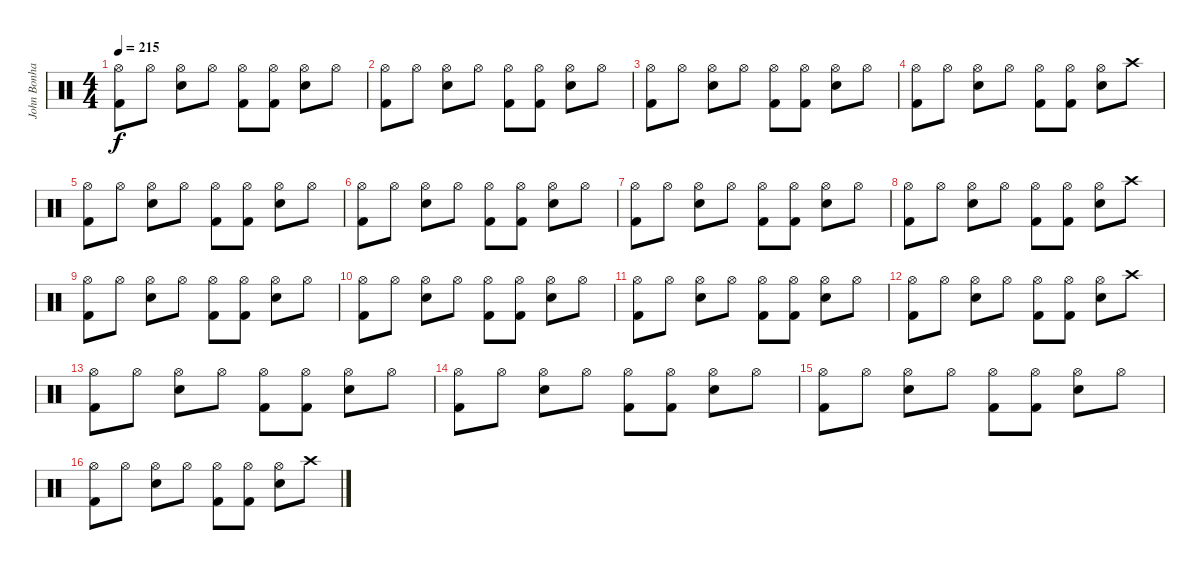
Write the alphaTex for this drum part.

\track ("John Bonham" "John Bonha") {instrument percussion}
\staff {score}
\articulation defaults
\ts (4 4)
\tempo 215
\clef neutral
\ks c
("Hi-Hat (open)" "Kick (hit) 2").8{dy f} "Hi-Hat (open)".8 ("Hi-Hat (open)" "Snare (hit) 2").8 "Hi-Hat (open)".8 ("Hi-Hat (open)" "Kick (hit) 2").8 ("Hi-Hat (open)" "Kick (hit) 2").8 ("Hi-Hat (open)" "Snare (hit) 2").8 "Hi-Hat (open)".8 |
("Hi-Hat (open)" "Kick (hit) 2").8 "Hi-Hat (open)".8 ("Hi-Hat (open)" "Snare (hit) 2").8 "Hi-Hat (open)".8 ("Hi-Hat (open)" "Kick (hit) 2").8 ("Hi-Hat (open)" "Kick (hit) 2").8 ("Hi-Hat (open)" "Snare (hit) 2").8 "Hi-Hat (open)".8 |
("Hi-Hat (open)" "Kick (hit) 2").8 "Hi-Hat (open)".8 ("Hi-Hat (open)" "Snare (hit) 2").8 "Hi-Hat (open)".8 ("Hi-Hat (open)" "Kick (hit) 2").8 ("Hi-Hat (open)" "Kick (hit) 2").8 ("Hi-Hat (open)" "Snare (hit) 2").8 "Hi-Hat (open)".8 |
("Hi-Hat (open)" "Kick (hit) 2").8 "Hi-Hat (open)".8 ("Hi-Hat (open)" "Snare (hit) 2").8 "Hi-Hat (open)".8 ("Hi-Hat (open)" "Kick (hit) 2").8 ("Hi-Hat (open)" "Kick (hit) 2").8 ("Hi-Hat (open)" "Snare (hit) 2").8 "Crash high (hit)".8 |
("Hi-Hat (open)" "Kick (hit) 2").8 "Hi-Hat (open)".8 ("Hi-Hat (open)" "Snare (hit) 2").8 "Hi-Hat (open)".8 ("Hi-Hat (open)" "Kick (hit) 2").8 ("Hi-Hat (open)" "Kick (hit) 2").8 ("Hi-Hat (open)" "Snare (hit) 2").8 "Hi-Hat (open)".8 |
("Hi-Hat (open)" "Kick (hit) 2").8 "Hi-Hat (open)".8 ("Hi-Hat (open)" "Snare (hit) 2").8 "Hi-Hat (open)".8 ("Hi-Hat (open)" "Kick (hit) 2").8 ("Hi-Hat (open)" "Kick (hit) 2").8 ("Hi-Hat (open)" "Snare (hit) 2").8 "Hi-Hat (open)".8 |
("Hi-Hat (open)" "Kick (hit) 2").8 "Hi-Hat (open)".8 ("Hi-Hat (open)" "Snare (hit) 2").8 "Hi-Hat (open)".8 ("Hi-Hat (open)" "Kick (hit) 2").8 ("Hi-Hat (open)" "Kick (hit) 2").8 ("Hi-Hat (open)" "Snare (hit) 2").8 "Hi-Hat (open)".8 |
("Hi-Hat (open)" "Kick (hit) 2").8 "Hi-Hat (open)".8 ("Hi-Hat (open)" "Snare (hit) 2").8 "Hi-Hat (open)".8 ("Hi-Hat (open)" "Kick (hit) 2").8 ("Hi-Hat (open)" "Kick (hit) 2").8 ("Hi-Hat (open)" "Snare (hit) 2").8 "Crash high (hit)".8 |
("Hi-Hat (open)" "Kick (hit) 2").8 "Hi-Hat (open)".8 ("Hi-Hat (open)" "Snare (hit) 2").8 "Hi-Hat (open)".8 ("Hi-Hat (open)" "Kick (hit) 2").8 ("Hi-Hat (open)" "Kick (hit) 2").8 ("Hi-Hat (open)" "Snare (hit) 2").8 "Hi-Hat (open)".8 |
("Hi-Hat (open)" "Kick (hit) 2").8 "Hi-Hat (open)".8 ("Hi-Hat (open)" "Snare (hit) 2").8 "Hi-Hat (open)".8 ("Hi-Hat (open)" "Kick (hit) 2").8 ("Hi-Hat (open)" "Kick (hit) 2").8 ("Hi-Hat (open)" "Snare (hit) 2").8 "Hi-Hat (open)".8 |
("Hi-Hat (open)" "Kick (hit) 2").8 "Hi-Hat (open)".8 ("Hi-Hat (open)" "Snare (hit) 2").8 "Hi-Hat (open)".8 ("Hi-Hat (open)" "Kick (hit) 2").8 ("Hi-Hat (open)" "Kick (hit) 2").8 ("Hi-Hat (open)" "Snare (hit) 2").8 "Hi-Hat (open)".8 |
("Hi-Hat (open)" "Kick (hit) 2").8 "Hi-Hat (open)".8 ("Hi-Hat (open)" "Snare (hit) 2").8 "Hi-Hat (open)".8 ("Hi-Hat (open)" "Kick (hit) 2").8 ("Hi-Hat (open)" "Kick (hit) 2").8 ("Hi-Hat (open)" "Snare (hit) 2").8 "Crash high (hit)".8 |
("Hi-Hat (open)" "Kick (hit) 2").8 "Hi-Hat (open)".8 ("Hi-Hat (open)" "Snare (hit) 2").8 "Hi-Hat (open)".8 ("Hi-Hat (open)" "Kick (hit) 2").8 ("Hi-Hat (open)" "Kick (hit) 2").8 ("Hi-Hat (open)" "Snare (hit) 2").8 "Hi-Hat (open)".8 |
("Hi-Hat (open)" "Kick (hit) 2").8 "Hi-Hat (open)".8 ("Hi-Hat (open)" "Snare (hit) 2").8 "Hi-Hat (open)".8 ("Hi-Hat (open)" "Kick (hit) 2").8 ("Hi-Hat (open)" "Kick (hit) 2").8 ("Hi-Hat (open)" "Snare (hit) 2").8 "Hi-Hat (open)".8 |
("Hi-Hat (open)" "Kick (hit) 2").8 "Hi-Hat (open)".8 ("Hi-Hat (open)" "Snare (hit) 2").8 "Hi-Hat (open)".8 ("Hi-Hat (open)" "Kick (hit) 2").8 ("Hi-Hat (open)" "Kick (hit) 2").8 ("Hi-Hat (open)" "Snare (hit) 2").8 "Hi-Hat (open)".8 |
("Hi-Hat (open)" "Kick (hit) 2").8 "Hi-Hat (open)".8 ("Hi-Hat (open)" "Snare (hit) 2").8 "Hi-Hat (open)".8 ("Hi-Hat (open)" "Kick (hit) 2").8 ("Hi-Hat (open)" "Kick (hit) 2").8 ("Hi-Hat (open)" "Snare (hit) 2").8 "Crash high (hit)".8
